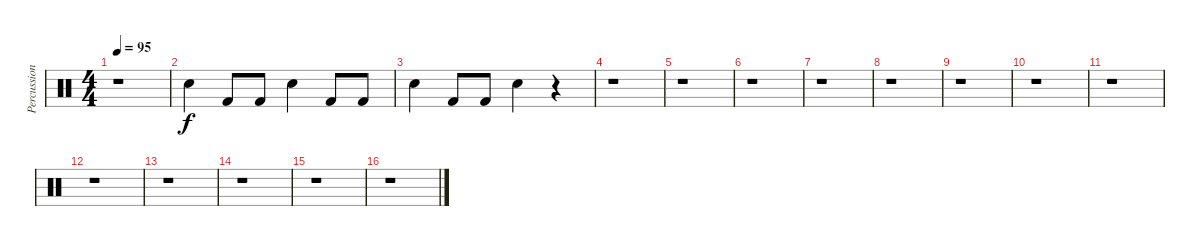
\track ("Percussions" "Percussion") {instrument percussion}
\staff {score}
\articulation defaults
\ts (4 4)
\tempo 95
\clef neutral
\ks c
r.1{dy f} |
"Snare (hit) 2".4 "Kick (hit) 2".8 "Kick (hit) 2".8 "Snare (hit) 2".4 "Kick (hit) 2".8 "Kick (hit) 2".8 |
"Snare (hit) 2".4 "Kick (hit) 2".8 "Kick (hit) 2".8 "Snare (hit) 2".4 r.4 |
r.1 |
r.1 |
r.1 |
r.1 |
r.1 |
r.1 |
r.1 |
r.1 |
r.1 |
r.1 |
r.1 |
r.1 |
r.1
